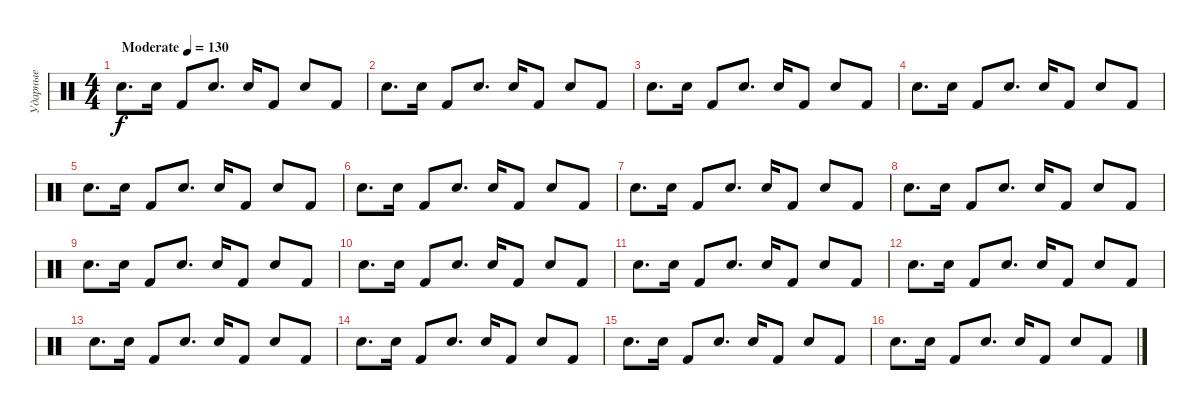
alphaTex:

\track ("Ударные" "Ударные") {instrument percussion}
\staff {score}
\articulation defaults
\ts (4 4)
\tempo (130 "Moderate")
\clef neutral
\ks c "Snare (hit) 2".8{d dy f} "Hand Clap (hit)".16 "Kick (hit) 2".8 "Snare (hit) 2".8{d} "Hand Clap (hit)".16 "Kick (hit) 2".8 "Snare (hit) 2".8 "Kick (hit) 2".8
|
"Snare (hit) 2".8{d} "Hand Clap (hit)".16 "Kick (hit) 2".8 "Snare (hit) 2".8{d} "Hand Clap (hit)".16 "Kick (hit) 2".8 "Snare (hit) 2".8 "Kick (hit) 2".8 |
"Snare (hit) 2".8{d} "Hand Clap (hit)".16 "Kick (hit) 2".8 "Snare (hit) 2".8{d} "Hand Clap (hit)".16 "Kick (hit) 2".8 "Snare (hit) 2".8 "Kick (hit) 2".8 |
"Snare (hit) 2".8{d} "Hand Clap (hit)".16 "Kick (hit) 2".8 "Snare (hit) 2".8{d} "Hand Clap (hit)".16 "Kick (hit) 2".8 "Snare (hit) 2".8 "Kick (hit) 2".8 |
"Snare (hit) 2".8{d} "Hand Clap (hit)".16 "Kick (hit) 2".8 "Snare (hit) 2".8{d} "Hand Clap (hit)".16 "Kick (hit) 2".8 "Snare (hit) 2".8 "Kick (hit) 2".8 |
"Snare (hit) 2".8{d} "Hand Clap (hit)".16 "Kick (hit) 2".8 "Snare (hit) 2".8{d} "Hand Clap (hit)".16 "Kick (hit) 2".8 "Snare (hit) 2".8 "Kick (hit) 2".8 |
"Snare (hit) 2".8{d} "Hand Clap (hit)".16 "Kick (hit) 2".8 "Snare (hit) 2".8{d} "Hand Clap (hit)".16 "Kick (hit) 2".8 "Snare (hit) 2".8 "Kick (hit) 2".8 |
"Snare (hit) 2".8{d} "Hand Clap (hit)".16 "Kick (hit) 2".8 "Snare (hit) 2".8{d} "Hand Clap (hit)".16 "Kick (hit) 2".8 "Snare (hit) 2".8 "Kick (hit) 2".8 |
"Snare (hit) 2".8{d} "Hand Clap (hit)".16 "Kick (hit) 2".8 "Snare (hit) 2".8{d} "Hand Clap (hit)".16 "Kick (hit) 2".8 "Snare (hit) 2".8 "Kick (hit) 2".8 |
"Snare (hit) 2".8{d} "Hand Clap (hit)".16 "Kick (hit) 2".8 "Snare (hit) 2".8{d} "Hand Clap (hit)".16 "Kick (hit) 2".8 "Snare (hit) 2".8 "Kick (hit) 2".8 |
"Snare (hit) 2".8{d} "Hand Clap (hit)".16 "Kick (hit) 2".8 "Snare (hit) 2".8{d} "Hand Clap (hit)".16 "Kick (hit) 2".8 "Snare (hit) 2".8 "Kick (hit) 2".8 |
"Snare (hit) 2".8{d} "Hand Clap (hit)".16 "Kick (hit) 2".8 "Snare (hit) 2".8{d} "Hand Clap (hit)".16 "Kick (hit) 2".8 "Snare (hit) 2".8 "Kick (hit) 2".8 |
"Snare (hit) 2".8{d} "Hand Clap (hit)".16 "Kick (hit) 2".8 "Snare (hit) 2".8{d} "Hand Clap (hit)".16 "Kick (hit) 2".8 "Snare (hit) 2".8 "Kick (hit) 2".8 |
"Snare (hit) 2".8{d} "Hand Clap (hit)".16 "Kick (hit) 2".8 "Snare (hit) 2".8{d} "Hand Clap (hit)".16 "Kick (hit) 2".8 "Snare (hit) 2".8 "Kick (hit) 2".8 |
"Snare (hit) 2".8{d} "Hand Clap (hit)".16 "Kick (hit) 2".8 "Snare (hit) 2".8{d} "Hand Clap (hit)".16 "Kick (hit) 2".8 "Snare (hit) 2".8 "Kick (hit) 2".8 |
"Snare (hit) 2".8{d} "Hand Clap (hit)".16 "Kick (hit) 2".8 "Snare (hit) 2".8{d} "Hand Clap (hit)".16 "Kick (hit) 2".8 "Snare (hit) 2".8 "Kick (hit) 2".8
